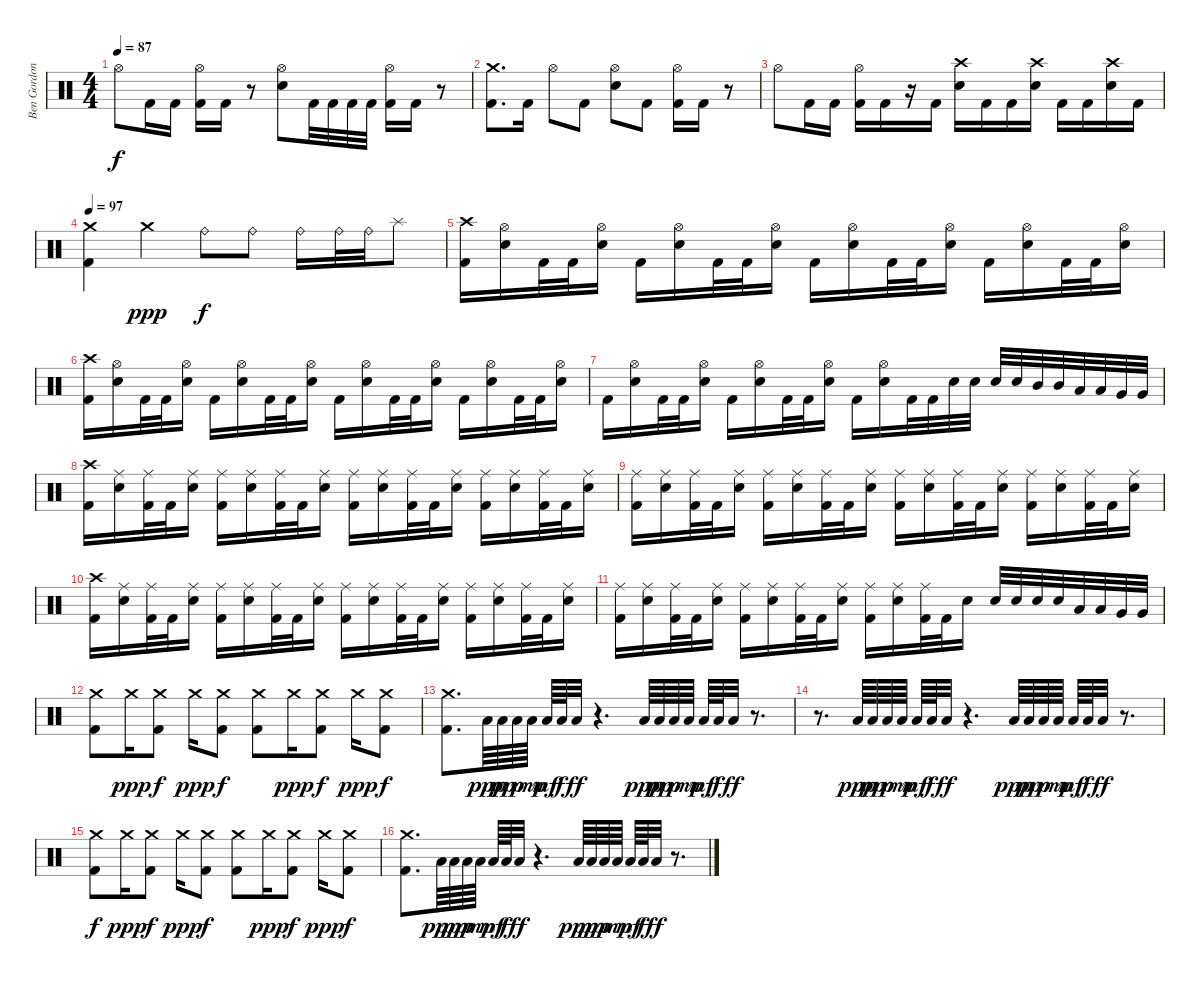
\track ("Ben Gordon" "Ben Gordon") {instrument percussion}
\staff {score}
\articulation defaults
\ts (4 4)
\tempo 87
\clef neutral
\ks c "Hi-Hat (open)".8{dy f} "Kick (hit) 2".16 "Kick (hit) 2".16
("Hi-Hat (open)" "Kick (hit) 2").16 "Kick (hit) 2".16 r.8 ("Hi-Hat (open)" "Snare (hit) 2").8 "Kick (hit) 2".32 "Kick (hit) 2".32 "Kick (hit) 2".32 "Kick (hit) 2".32 ("Hi-Hat (open)" "Kick (hit) 2").16 "Kick (hit) 2".16 r.8 |
("Crash medium (hit)" "Kick (hit) 2").8{d} "Kick (hit) 2".16 "Hi-Hat (open)".8 "Kick (hit) 2".8 ("Hi-Hat (open)" "Snare (hit) 2").8 "Kick (hit) 2".8 ("Hi-Hat (open)" "Kick (hit) 2").16 "Kick (hit) 2".16 r.8 |
"Hi-Hat (open)".8 "Kick (hit) 2".16 "Kick (hit) 2".16 ("Hi-Hat (open)" "Kick (hit) 2").16 "Kick (hit) 2".16 r.16 "Kick (hit) 2".16 ("Crash high (hit)" "Snare (hit) 2").16 "Kick (hit) 2".16 "Kick (hit) 2".16 ("Crash high (hit)" "Snare (hit) 2").16 "Kick (hit) 2".16 "Kick (hit) 2".16 ("Crash high (hit)" "Snare (hit) 2").16 "Kick (hit) 2".16 |
\tempo 97
("Crash medium (hit)" "Kick (hit) 2").4 "Crash medium (hit)".4{dy ppp} "Ride (bell)".8{dy f} "Ride (bell)".8 "Ride (bell)".16 "Ride (bell)".32 "Ride (bell)".32 "Splash (hit)".8 |
("Crash high (hit)" "Kick (hit) 2").16 ("Hi-Hat (open)" "Snare (hit) 2").16 "Kick (hit) 2".32 "Kick (hit) 2".32 ("Hi-Hat (open)" "Snare (hit) 2").16 "Kick (hit) 2".16 ("Hi-Hat (open)" "Snare (hit) 2").16 "Kick (hit) 2".32 "Kick (hit) 2".32 ("Hi-Hat (open)" "Snare (hit) 2").16 "Kick (hit) 2".16 ("Hi-Hat (open)" "Snare (hit) 2").16 "Kick (hit) 2".32 "Kick (hit) 2".32 ("Hi-Hat (open)" "Snare (hit) 2").16 "Kick (hit) 2".16 ("Hi-Hat (open)" "Snare (hit) 2").16 "Kick (hit) 2".32 "Kick (hit) 2".32 ("Hi-Hat (open)" "Snare (hit) 2").16 |
("Crash high (hit)" "Kick (hit) 2").16 ("Hi-Hat (open)" "Snare (hit) 2").16 "Kick (hit) 2".32 "Kick (hit) 2".32 ("Hi-Hat (open)" "Snare (hit) 2").16 "Kick (hit) 2".16 ("Hi-Hat (open)" "Snare (hit) 2").16 "Kick (hit) 2".32 "Kick (hit) 2".32 ("Hi-Hat (open)" "Snare (hit) 2").16 "Kick (hit) 2".16 ("Hi-Hat (open)" "Snare (hit) 2").16 "Kick (hit) 2".32 "Kick (hit) 2".32 ("Hi-Hat (open)" "Snare (hit) 2").16 "Kick (hit) 2".16 ("Hi-Hat (open)" "Snare (hit) 2").16 "Kick (hit) 2".32 "Kick (hit) 2".32 ("Hi-Hat (open)" "Snare (hit) 2").16 |
"Kick (hit) 2".16 ("Hi-Hat (open)" "Snare (hit) 2").16 "Kick (hit) 2".32 "Kick (hit) 2".32 ("Hi-Hat (open)" "Snare (hit) 2").16 "Kick (hit) 2".16 ("Hi-Hat (open)" "Snare (hit) 2").16 "Kick (hit) 2".32 "Kick (hit) 2".32 ("Hi-Hat (open)" "Snare (hit) 2").16 "Kick (hit) 2".16 ("Hi-Hat (open)" "Snare (hit) 2").16 "Kick (hit) 2".32 "Kick (hit) 2".32 "Snare (hit) 2".32 "Snare (hit) 2".32 "Snare (hit) 2".32 "Snare (hit) 2".32 "Mid Tom (hit)".32 "Mid Tom (hit)".32 "Low Tom (hit)".32 "Low Tom (hit)".32 "Very Low Tom (hit)".32 "Very Low Tom (hit)".32 |
("Crash high (hit)" "Kick (hit) 2").16 ("Ride (middle)" "Snare (hit) 2").16 ("Ride (middle)" "Kick (hit) 2").32 "Kick (hit) 2".32 ("Ride (middle)" "Snare (hit) 2").16 ("Ride (middle)" "Kick (hit) 2").16 ("Ride (middle)" "Snare (hit) 2").16 ("Ride (middle)" "Kick (hit) 2").32 "Kick (hit) 2".32 ("Ride (middle)" "Snare (hit) 2").16 ("Ride (middle)" "Kick (hit) 2").16 ("Ride (middle)" "Snare (hit) 2").16 ("Ride (middle)" "Kick (hit) 2").32 "Kick (hit) 2".32 ("Ride (middle)" "Snare (hit) 2").16 ("Ride (middle)" "Kick (hit) 2").16 ("Ride (middle)" "Snare (hit) 2").16 ("Ride (middle)" "Kick (hit) 2").32 "Kick (hit) 2".32 ("Ride (middle)" "Snare (hit) 2").16 |
("Ride (middle)" "Kick (hit) 2").16 ("Ride (middle)" "Snare (hit) 2").16 ("Ride (middle)" "Kick (hit) 2").32 "Kick (hit) 2".32 ("Ride (middle)" "Snare (hit) 2").16 ("Ride (middle)" "Kick (hit) 2").16 ("Ride (middle)" "Snare (hit) 2").16 ("Ride (middle)" "Kick (hit) 2").32 "Kick (hit) 2".32 ("Ride (middle)" "Snare (hit) 2").16 ("Ride (middle)" "Kick (hit) 2").16 ("Ride (middle)" "Snare (hit) 2").16 ("Ride (middle)" "Kick (hit) 2").32 "Kick (hit) 2".32 ("Ride (middle)" "Snare (hit) 2").16 ("Ride (middle)" "Kick (hit) 2").16 ("Ride (middle)" "Snare (hit) 2").16 ("Ride (middle)" "Kick (hit) 2").32 "Kick (hit) 2".32 ("Ride (middle)" "Snare (hit) 2").16 |
("Crash high (hit)" "Kick (hit) 2").16 ("Ride (middle)" "Snare (hit) 2").16 ("Ride (middle)" "Kick (hit) 2").32 "Kick (hit) 2".32 ("Ride (middle)" "Snare (hit) 2").16 ("Ride (middle)" "Kick (hit) 2").16 ("Ride (middle)" "Snare (hit) 2").16 ("Ride (middle)" "Kick (hit) 2").32 "Kick (hit) 2".32 ("Ride (middle)" "Snare (hit) 2").16 ("Ride (middle)" "Kick (hit) 2").16 ("Ride (middle)" "Snare (hit) 2").16 ("Ride (middle)" "Kick (hit) 2").32 "Kick (hit) 2".32 ("Ride (middle)" "Snare (hit) 2").16 ("Ride (middle)" "Kick (hit) 2").16 ("Ride (middle)" "Snare (hit) 2").16 ("Ride (middle)" "Kick (hit) 2").32 "Kick (hit) 2".32 ("Ride (middle)" "Snare (hit) 2").16 |
("Ride (middle)" "Kick (hit) 2").16 ("Ride (middle)" "Snare (hit) 2").16 ("Ride (middle)" "Kick (hit) 2").32 "Kick (hit) 2".32 ("Ride (middle)" "Snare (hit) 2").16 ("Ride (middle)" "Kick (hit) 2").16 ("Ride (middle)" "Snare (hit) 2").16 ("Ride (middle)" "Kick (hit) 2").32 "Kick (hit) 2".32 ("Ride (middle)" "Snare (hit) 2").16 ("Ride (middle)" "Kick (hit) 2").16 ("Ride (middle)" "Snare (hit) 2").16 ("Ride (middle)" "Kick (hit) 2").32 "Kick (hit) 2".32 "Snare (hit) 2".16 "Snare (hit) 2".32 "Snare (hit) 2".32 "Snare (hit) 2".32 "Snare (hit) 2".32 "Low Tom (hit)".32 "Low Tom (hit)".32 "Very Low Tom (hit)".32 "Very Low Tom (hit)".32 |
("Crash medium (hit)" "Kick (hit) 2").8 "Crash medium (hit)".16{dy ppp} ("Crash medium (hit)" "Kick (hit) 2").8{dy f} "Crash medium (hit)".16{dy ppp} ("Crash medium (hit)" "Kick (hit) 2").8{dy f} ("Crash medium (hit)" "Kick (hit) 2").8 "Crash medium (hit)".16{dy ppp} ("Crash medium (hit)" "Kick (hit) 2").8{dy f} "Crash medium (hit)".16{dy ppp} ("Crash medium (hit)" "Kick (hit) 2").8{dy f} |
("Crash medium (hit)" "Kick (hit) 2").8{d} "Low Floor Tom (hit)".64{dy ppp} "Low Floor Tom (hit)".64{dy pp} "Low Floor Tom (hit)".64{dy p} "Low Floor Tom (hit)".64{dy mp} "Low Floor Tom (hit)".64{dy mf} "Low Floor Tom (hit)".64{dy f} "Low Floor Tom (hit)".32{dy ff} r.4{d} "Low Floor Tom (hit)".64{dy ppp} "Low Floor Tom (hit)".64{dy pp} "Low Floor Tom (hit)".64{dy p} "Low Floor Tom (hit)".64{dy mp} "Low Floor Tom (hit)".64{dy mf} "Low Floor Tom (hit)".64{dy f} "Low Floor Tom (hit)".32{dy ff} r.8{d} |
r.8{d} "Low Floor Tom (hit)".64{dy ppp} "Low Floor Tom (hit)".64{dy pp} "Low Floor Tom (hit)".64{dy p} "Low Floor Tom (hit)".64{dy mp} "Low Floor Tom (hit)".64{dy mf} "Low Floor Tom (hit)".64{dy f} "Low Floor Tom (hit)".32{dy ff} r.4{d} "Low Floor Tom (hit)".64{dy ppp} "Low Floor Tom (hit)".64{dy pp} "Low Floor Tom (hit)".64{dy p} "Low Floor Tom (hit)".64{dy mp} "Low Floor Tom (hit)".64{dy mf} "Low Floor Tom (hit)".64{dy f} "Low Floor Tom (hit)".32{dy ff} r.8{d} |
("Crash medium (hit)" "Kick (hit) 2").8{dy f} "Crash medium (hit)".16{dy ppp} ("Crash medium (hit)" "Kick (hit) 2").8{dy f} "Crash medium (hit)".16{dy ppp} ("Crash medium (hit)" "Kick (hit) 2").8{dy f} ("Crash medium (hit)" "Kick (hit) 2").8 "Crash medium (hit)".16{dy ppp} ("Crash medium (hit)" "Kick (hit) 2").8{dy f} "Crash medium (hit)".16{dy ppp} ("Crash medium (hit)" "Kick (hit) 2").8{dy f} |
("Crash medium (hit)" "Kick (hit) 2").8{d} "Low Floor Tom (hit)".64{dy ppp} "Low Floor Tom (hit)".64{dy pp} "Low Floor Tom (hit)".64{dy p} "Low Floor Tom (hit)".64{dy mp} "Low Floor Tom (hit)".64{dy mf} "Low Floor Tom (hit)".64{dy f} "Low Floor Tom (hit)".32{dy ff} r.4{d} "Low Floor Tom (hit)".64{dy ppp} "Low Floor Tom (hit)".64{dy pp} "Low Floor Tom (hit)".64{dy p} "Low Floor Tom (hit)".64{dy mp} "Low Floor Tom (hit)".64{dy mf} "Low Floor Tom (hit)".64{dy f} "Low Floor Tom (hit)".32{dy ff} r.8{d}
